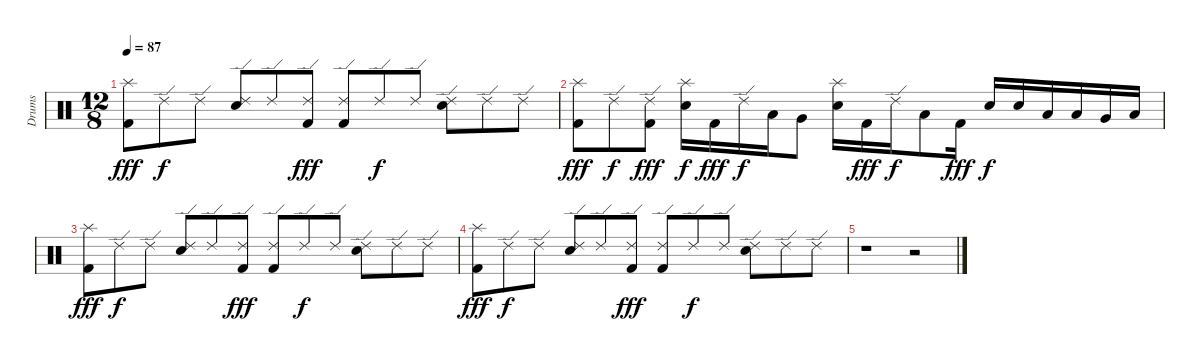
\track ("Drums" "Drums") {instrument percussion}
\staff {score}
\articulation defaults
\ts (12 8)
\tempo 87
\clef neutral
\ks c
("Splash (hit)" "Kick (hit) 2").8{dy fff volume 10} "Ride (edge) 2".8{dy f} "Ride (edge) 2".8 ("Ride (edge) 2" "Snare (hit) 2").8 "Ride (edge) 2".8 ("Ride (edge) 2" "Kick (hit) 2").8{dy fff} ("Ride (edge) 2" "Kick (hit) 2").8 "Ride (edge) 2".8{dy f} "Ride (edge) 2".8 ("Ride (edge) 2" "Snare (hit) 2").8 "Ride (edge) 2".8 "Ride (edge) 2".8 |
("Splash (hit)" "Kick (hit) 2").8{dy fff volume 6} "Ride (edge) 2".8{dy f} ("Ride (edge) 2" "Kick (hit) 2").8{dy fff} ("Splash (hit)" "Snare (hit) 2").16{dy f} "Kick (hit) 2".16{dy fff} "Ride (edge) 2".16{dy f} "Low Tom (hit)".16 "Very Low Tom (hit)".8 ("Splash (hit)" "Snare (hit) 2").16 "Kick (hit) 2".16{dy fff} "Ride (edge) 2".16{dy f} "Low Tom (hit)".8 "Kick (hit) 2".16{dy fff} "Snare (hit) 2".16{dy f} "Snare (hit) 2".16 "Low Tom (hit)".16 "Low Tom (hit)".16 "Very Low Tom (hit)".16 "Low Floor Tom (hit)".16 |
("Splash (hit)" "Kick (hit) 2").8{dy fff volume 0} "Ride (edge) 2".8{dy f} "Ride (edge) 2".8 ("Ride (edge) 2" "Snare (hit) 2").8 "Ride (edge) 2".8 ("Ride (edge) 2" "Kick (hit) 2").8{dy fff} ("Ride (edge) 2" "Kick (hit) 2").8 "Ride (edge) 2".8{dy f} "Ride (edge) 2".8 ("Ride (edge) 2" "Snare (hit) 2").8 "Ride (edge) 2".8 "Ride (edge) 2".8 |
("Splash (hit)" "Kick (hit) 2").8{dy fff} "Ride (edge) 2".8{dy f} "Ride (edge) 2".8 ("Ride (edge) 2" "Snare (hit) 2").8 "Ride (edge) 2".8 ("Ride (edge) 2" "Kick (hit) 2").8{dy fff} ("Ride (edge) 2" "Kick (hit) 2").8 "Ride (edge) 2".8{dy f} "Ride (edge) 2".8 ("Ride (edge) 2" "Snare (hit) 2").8 "Ride (edge) 2".8 "Ride (edge) 2".8 |
r.1 r.2
